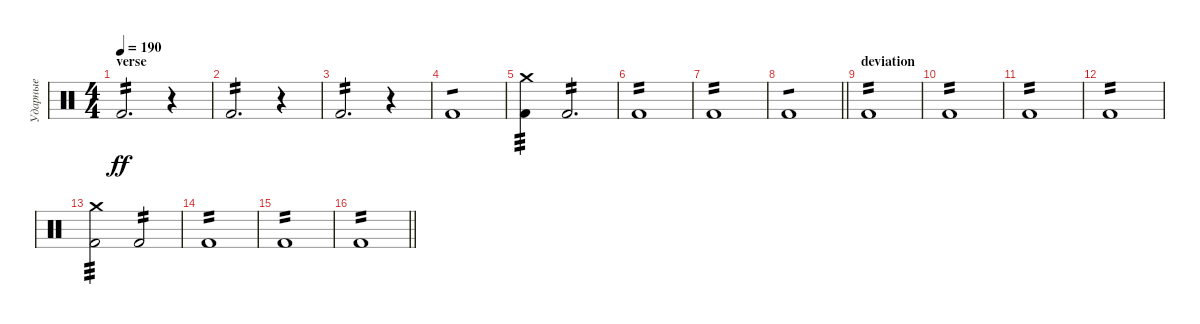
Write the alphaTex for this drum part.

\track ("Ударные" "Ударные") {instrument percussion}
\staff {score}
\articulation defaults
\ts (4 4)
\section ("" "verse")
\tempo 190
\clef neutral
\ks c "Kick (hit) 2".2{d tp 2 dy ff}
r.4 |
"Kick (hit) 2".2{d tp 2} r.4 |
"Kick (hit) 2".2{d tp 2} r.4 |
"Kick (hit) 2".1{tp 1} |
("Kick (hit) 2" "Crash medium (hit)").4{tp 3} "Kick (hit) 2".2{d tp 2} |
"Kick (hit) 2".1{tp 2} |
"Kick (hit) 2".1{tp 2} |
\barLineRight lightlight "Kick (hit) 2".1{tp 1}
|
\section ("" "deviation")
"Kick (hit) 2".1{tp 2} |
"Kick (hit) 2".1{tp 2} |
"Kick (hit) 2".1{tp 2} |
"Kick (hit) 2".1{tp 2} |
("Kick (hit) 2" "Crash medium (hit)").2{tp 3} "Kick (hit) 2".2{tp 2} |
"Kick (hit) 2".1{tp 2} |
"Kick (hit) 2".1{tp 2} |
\barLineRight lightlight "Kick (hit) 2".1{tp 2}
